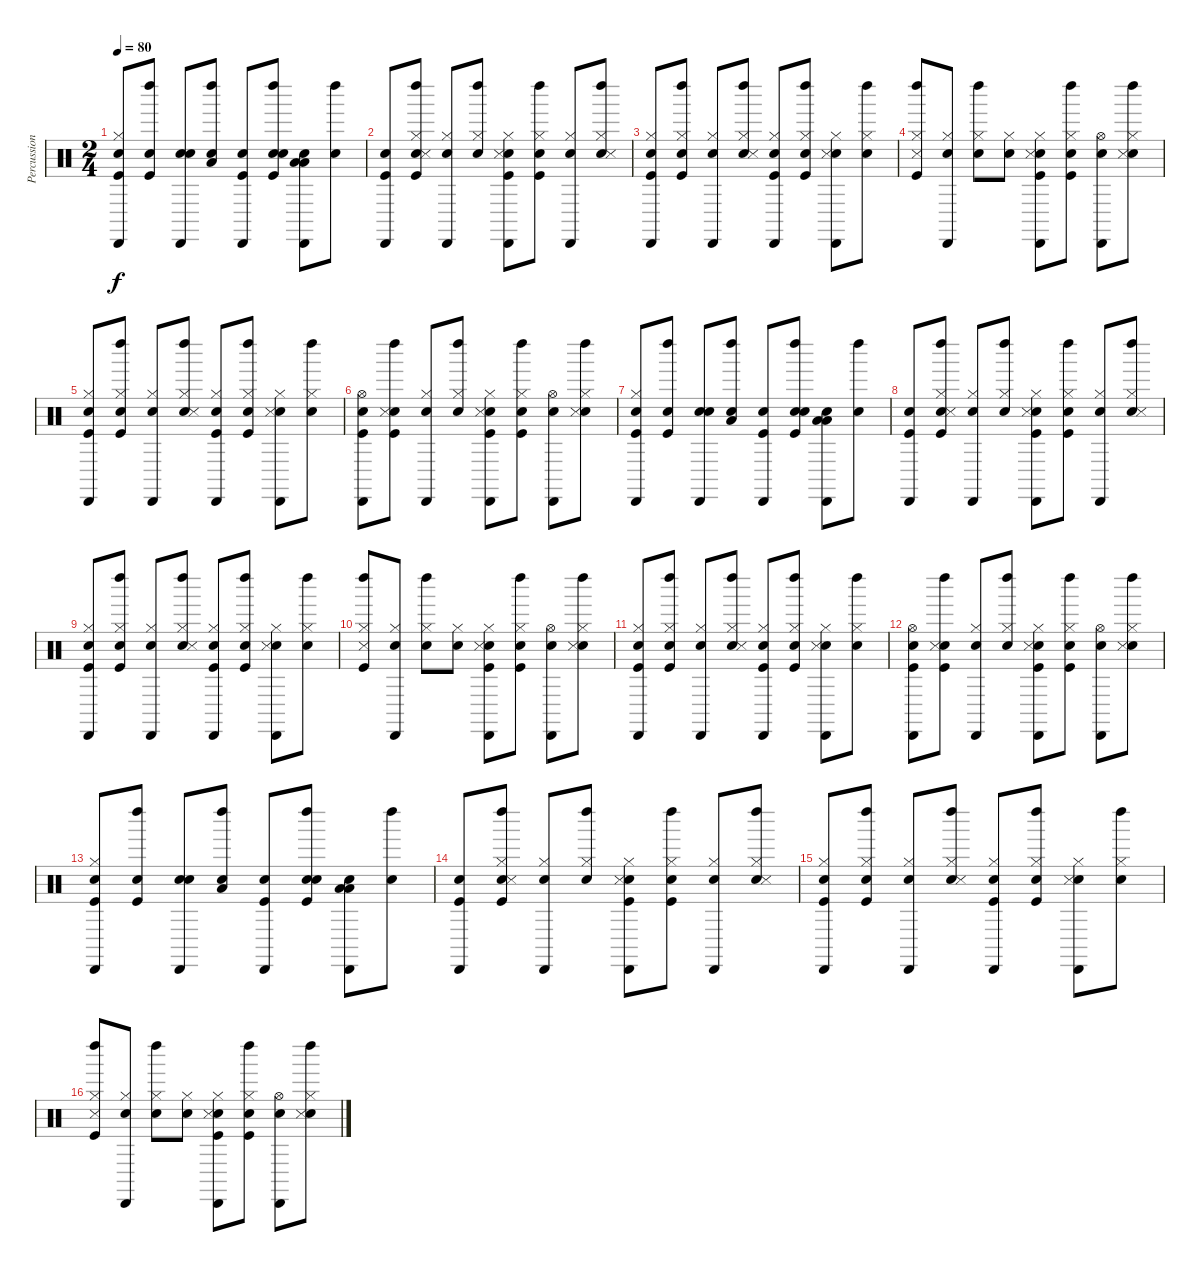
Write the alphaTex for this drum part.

\track ("Percussions" "Percussion") {instrument percussion}
\staff {score}
\articulation defaults
\ts (2 4)
\tempo 80
\clef neutral
\ks c
("Snare (hit)" "Kick (hit)" "Hi-Hat (closed)" "Cabasa (hit)").8{dy f} ("Snare (hit)" "Kick (hit)" "Left Maraca (hit)").8 ("Snare (hit)" "Snare (hit) 2" "Cabasa (hit)").8 ("Snare (hit)" "Low Tom (hit)" "Left Maraca (hit)").8 ("Snare (hit)" "Kick (hit)" "Cabasa (hit)").8 ("Snare (hit)" "Kick (hit)" "Snare (hit) 2" "Left Maraca (hit)").8 ("Snare (hit)" "Low Floor Tom (hit)" "Low Tom (hit)" "Cabasa (hit)").8 ("Snare (hit)" "Left Maraca (hit)").8 |
("Snare (hit)" "Kick (hit)" "Cabasa (hit)").8 ("Snare (hit)" "Kick (hit)" "Hi-Hat (closed)" "Snare (side stick) 3" "Left Maraca (hit)").8 ("Snare (hit)" "Hi-Hat (closed)" "Cabasa (hit)").8 ("Snare (hit)" "Hi-Hat (closed)" "Left Maraca (hit)").8 ("Snare (hit)" "Kick (hit)" "Hi-Hat (closed)" "Snare (side stick) 3" "Cabasa (hit)").8 ("Snare (hit)" "Kick (hit)" "Hi-Hat (closed)" "Left Maraca (hit)").8 ("Snare (hit)" "Hi-Hat (closed)" "Cabasa (hit)").8 ("Snare (hit)" "Hi-Hat (closed)" "Snare (side stick) 3" "Left Maraca (hit)").8 |
("Snare (hit)" "Kick (hit)" "Hi-Hat (closed)" "Cabasa (hit)").8 ("Snare (hit)" "Kick (hit)" "Hi-Hat (closed)" "Left Maraca (hit)").8 ("Snare (hit)" "Hi-Hat (closed)" "Cabasa (hit)").8 ("Snare (hit)" "Hi-Hat (closed)" "Snare (side stick) 3" "Left Maraca (hit)").8 ("Snare (hit)" "Kick (hit)" "Hi-Hat (closed)" "Cabasa (hit)").8 ("Snare (hit)" "Kick (hit)" "Hi-Hat (closed)" "Left Maraca (hit)").8 ("Snare (hit)" "Hi-Hat (closed)" "Snare (side stick) 3" "Cabasa (hit)").8 ("Snare (hit)" "Hi-Hat (closed)" "Left Maraca (hit)").8 |
("Kick (hit)" "Hi-Hat (closed)" "Snare (side stick) 3" "Left Maraca (hit)").8 ("Snare (hit)" "Hi-Hat (closed)" "Cabasa (hit)").8 ("Snare (hit)" "Hi-Hat (closed)" "Left Maraca (hit)").8 ("Snare (hit)" "Hi-Hat (closed)").8 ("Snare (hit)" "Kick (hit)" "Hi-Hat (closed)" "Snare (side stick) 3" "Cabasa (hit)").8 ("Snare (hit)" "Kick (hit)" "Hi-Hat (closed)" "Left Maraca (hit)").8 ("Snare (hit)" "Hi-Hat (open)" "Cabasa (hit)").8 ("Snare (hit)" "Hi-Hat (closed)" "Snare (side stick) 3" "Left Maraca (hit)").8 |
("Snare (hit)" "Kick (hit)" "Hi-Hat (closed)" "Cabasa (hit)").8 ("Snare (hit)" "Kick (hit)" "Hi-Hat (closed)" "Left Maraca (hit)").8 ("Snare (hit)" "Hi-Hat (closed)" "Cabasa (hit)").8 ("Snare (hit)" "Hi-Hat (closed)" "Snare (side stick) 3" "Left Maraca (hit)").8 ("Snare (hit)" "Kick (hit)" "Hi-Hat (closed)" "Cabasa (hit)").8 ("Snare (hit)" "Kick (hit)" "Hi-Hat (closed)" "Left Maraca (hit)").8 ("Snare (hit)" "Hi-Hat (closed)" "Snare (side stick) 3" "Cabasa (hit)").8 ("Snare (hit)" "Hi-Hat (closed)" "Left Maraca (hit)").8 |
("Snare (hit)" "Kick (hit)" "Hi-Hat (open)" "Cabasa (hit)").8 ("Snare (hit)" "Kick (hit)" "Snare (side stick) 3" "Left Maraca (hit)").8 ("Snare (hit)" "Hi-Hat (closed)" "Cabasa (hit)").8 ("Snare (hit)" "Hi-Hat (closed)" "Left Maraca (hit)").8 ("Snare (hit)" "Kick (hit)" "Hi-Hat (closed)" "Snare (side stick) 3" "Cabasa (hit)").8 ("Snare (hit)" "Kick (hit)" "Hi-Hat (closed)" "Left Maraca (hit)").8 ("Snare (hit)" "Hi-Hat (open)" "Cabasa (hit)").8 ("Snare (hit)" "Hi-Hat (closed)" "Snare (side stick) 3" "Left Maraca (hit)").8 |
("Snare (hit)" "Kick (hit)" "Hi-Hat (closed)" "Cabasa (hit)").8 ("Snare (hit)" "Kick (hit)" "Left Maraca (hit)").8 ("Snare (hit)" "Snare (hit) 2" "Cabasa (hit)").8 ("Snare (hit)" "Low Tom (hit)" "Left Maraca (hit)").8 ("Snare (hit)" "Kick (hit)" "Cabasa (hit)").8 ("Snare (hit)" "Kick (hit)" "Snare (hit) 2" "Left Maraca (hit)").8 ("Snare (hit)" "Low Floor Tom (hit)" "Low Tom (hit)" "Cabasa (hit)").8 ("Snare (hit)" "Left Maraca (hit)").8 |
("Snare (hit)" "Kick (hit)" "Cabasa (hit)").8 ("Snare (hit)" "Kick (hit)" "Hi-Hat (closed)" "Snare (side stick) 3" "Left Maraca (hit)").8 ("Snare (hit)" "Hi-Hat (closed)" "Cabasa (hit)").8 ("Snare (hit)" "Hi-Hat (closed)" "Left Maraca (hit)").8 ("Snare (hit)" "Kick (hit)" "Hi-Hat (closed)" "Snare (side stick) 3" "Cabasa (hit)").8 ("Snare (hit)" "Kick (hit)" "Hi-Hat (closed)" "Left Maraca (hit)").8 ("Snare (hit)" "Hi-Hat (closed)" "Cabasa (hit)").8 ("Snare (hit)" "Hi-Hat (closed)" "Snare (side stick) 3" "Left Maraca (hit)").8 |
("Snare (hit)" "Kick (hit)" "Hi-Hat (closed)" "Cabasa (hit)").8 ("Snare (hit)" "Kick (hit)" "Hi-Hat (closed)" "Left Maraca (hit)").8 ("Snare (hit)" "Hi-Hat (closed)" "Cabasa (hit)").8 ("Snare (hit)" "Hi-Hat (closed)" "Snare (side stick) 3" "Left Maraca (hit)").8 ("Snare (hit)" "Kick (hit)" "Hi-Hat (closed)" "Cabasa (hit)").8 ("Snare (hit)" "Kick (hit)" "Hi-Hat (closed)" "Left Maraca (hit)").8 ("Snare (hit)" "Hi-Hat (closed)" "Snare (side stick) 3" "Cabasa (hit)").8 ("Snare (hit)" "Hi-Hat (closed)" "Left Maraca (hit)").8 |
("Kick (hit)" "Hi-Hat (closed)" "Snare (side stick) 3" "Left Maraca (hit)").8 ("Snare (hit)" "Hi-Hat (closed)" "Cabasa (hit)").8 ("Snare (hit)" "Hi-Hat (closed)" "Left Maraca (hit)").8 ("Snare (hit)" "Hi-Hat (closed)").8 ("Snare (hit)" "Kick (hit)" "Hi-Hat (closed)" "Snare (side stick) 3" "Cabasa (hit)").8 ("Snare (hit)" "Kick (hit)" "Hi-Hat (closed)" "Left Maraca (hit)").8 ("Snare (hit)" "Hi-Hat (open)" "Cabasa (hit)").8 ("Snare (hit)" "Hi-Hat (closed)" "Snare (side stick) 3" "Left Maraca (hit)").8 |
("Snare (hit)" "Kick (hit)" "Hi-Hat (closed)" "Cabasa (hit)").8 ("Snare (hit)" "Kick (hit)" "Hi-Hat (closed)" "Left Maraca (hit)").8 ("Snare (hit)" "Hi-Hat (closed)" "Cabasa (hit)").8 ("Snare (hit)" "Hi-Hat (closed)" "Snare (side stick) 3" "Left Maraca (hit)").8 ("Snare (hit)" "Kick (hit)" "Hi-Hat (closed)" "Cabasa (hit)").8 ("Snare (hit)" "Kick (hit)" "Hi-Hat (closed)" "Left Maraca (hit)").8 ("Snare (hit)" "Hi-Hat (closed)" "Snare (side stick) 3" "Cabasa (hit)").8 ("Snare (hit)" "Hi-Hat (closed)" "Left Maraca (hit)").8 |
("Snare (hit)" "Kick (hit)" "Hi-Hat (open)" "Cabasa (hit)").8 ("Snare (hit)" "Kick (hit)" "Snare (side stick) 3" "Left Maraca (hit)").8 ("Snare (hit)" "Hi-Hat (closed)" "Cabasa (hit)").8 ("Snare (hit)" "Hi-Hat (closed)" "Left Maraca (hit)").8 ("Snare (hit)" "Kick (hit)" "Hi-Hat (closed)" "Snare (side stick) 3" "Cabasa (hit)").8 ("Snare (hit)" "Kick (hit)" "Hi-Hat (closed)" "Left Maraca (hit)").8 ("Snare (hit)" "Hi-Hat (open)" "Cabasa (hit)").8 ("Snare (hit)" "Hi-Hat (closed)" "Snare (side stick) 3" "Left Maraca (hit)").8 |
("Snare (hit)" "Kick (hit)" "Hi-Hat (closed)" "Cabasa (hit)").8 ("Snare (hit)" "Kick (hit)" "Left Maraca (hit)").8 ("Snare (hit)" "Snare (hit) 2" "Cabasa (hit)").8 ("Snare (hit)" "Low Tom (hit)" "Left Maraca (hit)").8 ("Snare (hit)" "Kick (hit)" "Cabasa (hit)").8 ("Snare (hit)" "Kick (hit)" "Snare (hit) 2" "Left Maraca (hit)").8 ("Snare (hit)" "Low Floor Tom (hit)" "Low Tom (hit)" "Cabasa (hit)").8 ("Snare (hit)" "Left Maraca (hit)").8 |
("Snare (hit)" "Kick (hit)" "Cabasa (hit)").8 ("Snare (hit)" "Kick (hit)" "Hi-Hat (closed)" "Snare (side stick) 3" "Left Maraca (hit)").8 ("Snare (hit)" "Hi-Hat (closed)" "Cabasa (hit)").8 ("Snare (hit)" "Hi-Hat (closed)" "Left Maraca (hit)").8 ("Snare (hit)" "Kick (hit)" "Hi-Hat (closed)" "Snare (side stick) 3" "Cabasa (hit)").8 ("Snare (hit)" "Kick (hit)" "Hi-Hat (closed)" "Left Maraca (hit)").8 ("Snare (hit)" "Hi-Hat (closed)" "Cabasa (hit)").8 ("Snare (hit)" "Hi-Hat (closed)" "Snare (side stick) 3" "Left Maraca (hit)").8 |
("Snare (hit)" "Kick (hit)" "Hi-Hat (closed)" "Cabasa (hit)").8 ("Snare (hit)" "Kick (hit)" "Hi-Hat (closed)" "Left Maraca (hit)").8 ("Snare (hit)" "Hi-Hat (closed)" "Cabasa (hit)").8 ("Snare (hit)" "Hi-Hat (closed)" "Snare (side stick) 3" "Left Maraca (hit)").8 ("Snare (hit)" "Kick (hit)" "Hi-Hat (closed)" "Cabasa (hit)").8 ("Snare (hit)" "Kick (hit)" "Hi-Hat (closed)" "Left Maraca (hit)").8 ("Snare (hit)" "Hi-Hat (closed)" "Snare (side stick) 3" "Cabasa (hit)").8 ("Snare (hit)" "Hi-Hat (closed)" "Left Maraca (hit)").8 |
("Kick (hit)" "Hi-Hat (closed)" "Snare (side stick) 3" "Left Maraca (hit)").8 ("Snare (hit)" "Hi-Hat (closed)" "Cabasa (hit)").8 ("Snare (hit)" "Hi-Hat (closed)" "Left Maraca (hit)").8 ("Snare (hit)" "Hi-Hat (closed)").8 ("Snare (hit)" "Kick (hit)" "Hi-Hat (closed)" "Snare (side stick) 3" "Cabasa (hit)").8 ("Snare (hit)" "Kick (hit)" "Hi-Hat (closed)" "Left Maraca (hit)").8 ("Snare (hit)" "Hi-Hat (open)" "Cabasa (hit)").8 ("Snare (hit)" "Hi-Hat (closed)" "Snare (side stick) 3" "Left Maraca (hit)").8
